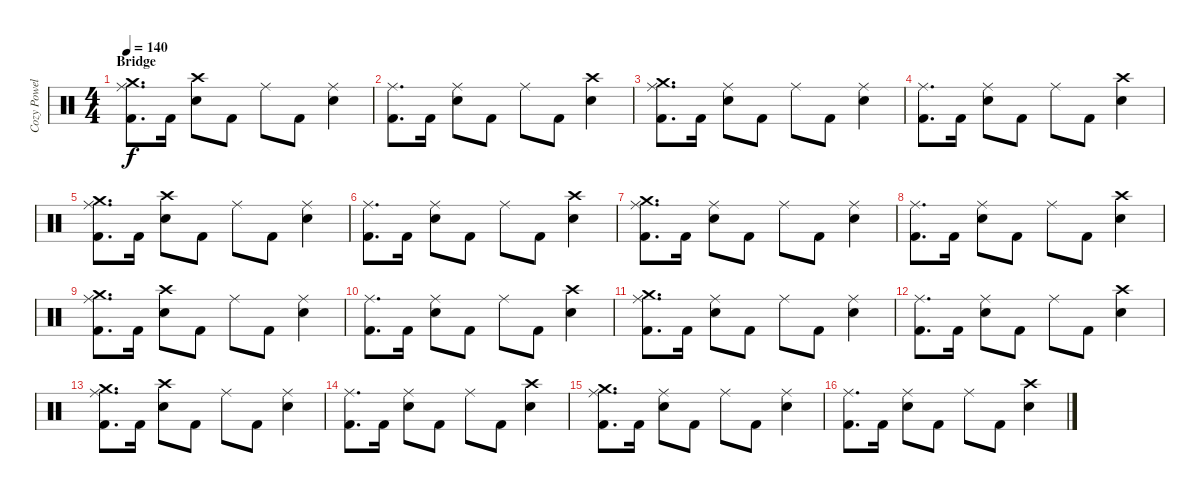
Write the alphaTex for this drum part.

\track ("Cozy Powell" "Cozy Powel") {instrument percussion}
\staff {score}
\articulation defaults
\ts (4 4)
\section ("" "Bridge")
\tempo 140
\clef neutral
\ks c
("Crash medium (hit)" "Ride (middle)" "Kick (hit) 2").8{d dy f} "Kick (hit) 2".16 ("Crash high (hit)" "Snare (hit) 2").8 "Kick (hit) 2".8 "Ride (middle)".8 "Kick (hit) 2".8 ("Ride (middle)" "Snare (hit) 2").4 |
("Ride (middle)" "Kick (hit) 2").8{d} "Kick (hit) 2".16 ("Ride (middle)" "Snare (hit) 2").8 "Kick (hit) 2".8 "Ride (middle)".8 "Kick (hit) 2".8 ("Crash high (hit)" "Snare (hit) 2").4 |
("Crash medium (hit)" "Ride (middle)" "Kick (hit) 2").8{d} "Kick (hit) 2".16 ("Ride (middle)" "Snare (hit) 2").8 "Kick (hit) 2".8 "Ride (middle)".8 "Kick (hit) 2".8 ("Ride (middle)" "Snare (hit) 2").4 |
("Ride (middle)" "Kick (hit) 2").8{d} "Kick (hit) 2".16 ("Ride (middle)" "Snare (hit) 2").8 "Kick (hit) 2".8 "Ride (middle)".8 "Kick (hit) 2".8 ("Crash high (hit)" "Snare (hit) 2").4 |
("Crash medium (hit)" "Ride (middle)" "Kick (hit) 2").8{d} "Kick (hit) 2".16 ("Crash high (hit)" "Snare (hit) 2").8 "Kick (hit) 2".8 "Ride (middle)".8 "Kick (hit) 2".8 ("Ride (middle)" "Snare (hit) 2").4 |
("Ride (middle)" "Kick (hit) 2").8{d} "Kick (hit) 2".16 ("Ride (middle)" "Snare (hit) 2").8 "Kick (hit) 2".8 "Ride (middle)".8 "Kick (hit) 2".8 ("Crash high (hit)" "Snare (hit) 2").4 |
("Crash medium (hit)" "Ride (middle)" "Kick (hit) 2").8{d} "Kick (hit) 2".16 ("Ride (middle)" "Snare (hit) 2").8 "Kick (hit) 2".8 "Ride (middle)".8 "Kick (hit) 2".8 ("Ride (middle)" "Snare (hit) 2").4 |
("Ride (middle)" "Kick (hit) 2").8{d} "Kick (hit) 2".16 ("Ride (middle)" "Snare (hit) 2").8 "Kick (hit) 2".8 "Ride (middle)".8 "Kick (hit) 2".8 ("Crash high (hit)" "Snare (hit) 2").4 |
("Crash medium (hit)" "Ride (middle)" "Kick (hit) 2").8{d} "Kick (hit) 2".16 ("Crash high (hit)" "Snare (hit) 2").8 "Kick (hit) 2".8 "Ride (middle)".8 "Kick (hit) 2".8 ("Ride (middle)" "Snare (hit) 2").4 |
("Ride (middle)" "Kick (hit) 2").8{d} "Kick (hit) 2".16 ("Ride (middle)" "Snare (hit) 2").8 "Kick (hit) 2".8 "Ride (middle)".8 "Kick (hit) 2".8 ("Crash high (hit)" "Snare (hit) 2").4 |
("Crash medium (hit)" "Ride (middle)" "Kick (hit) 2").8{d} "Kick (hit) 2".16 ("Ride (middle)" "Snare (hit) 2").8 "Kick (hit) 2".8 "Ride (middle)".8 "Kick (hit) 2".8 ("Ride (middle)" "Snare (hit) 2").4 |
("Ride (middle)" "Kick (hit) 2").8{d} "Kick (hit) 2".16 ("Ride (middle)" "Snare (hit) 2").8 "Kick (hit) 2".8 "Ride (middle)".8 "Kick (hit) 2".8 ("Crash high (hit)" "Snare (hit) 2").4 |
("Crash medium (hit)" "Ride (middle)" "Kick (hit) 2").8{d} "Kick (hit) 2".16 ("Crash high (hit)" "Snare (hit) 2").8 "Kick (hit) 2".8 "Ride (middle)".8 "Kick (hit) 2".8 ("Ride (middle)" "Snare (hit) 2").4 |
("Ride (middle)" "Kick (hit) 2").8{d} "Kick (hit) 2".16 ("Ride (middle)" "Snare (hit) 2").8 "Kick (hit) 2".8 "Ride (middle)".8 "Kick (hit) 2".8 ("Crash high (hit)" "Snare (hit) 2").4 |
("Crash medium (hit)" "Ride (middle)" "Kick (hit) 2").8{d} "Kick (hit) 2".16 ("Ride (middle)" "Snare (hit) 2").8 "Kick (hit) 2".8 "Ride (middle)".8 "Kick (hit) 2".8 ("Ride (middle)" "Snare (hit) 2").4 |
("Ride (middle)" "Kick (hit) 2").8{d} "Kick (hit) 2".16 ("Ride (middle)" "Snare (hit) 2").8 "Kick (hit) 2".8 "Ride (middle)".8 "Kick (hit) 2".8 ("Crash high (hit)" "Snare (hit) 2").4
